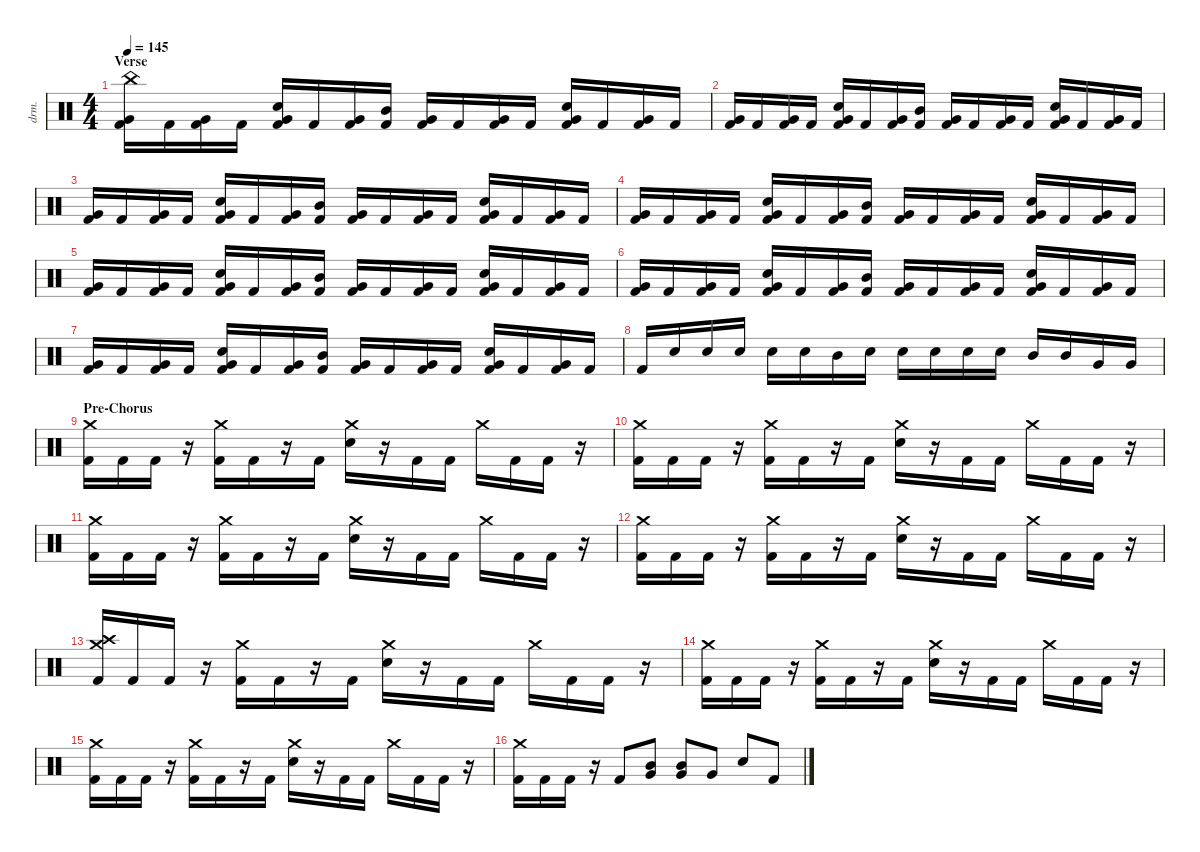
\defaultSystemsLayout 4
\hideDynamics
\bracketExtendMode nobrackets
\track ("Drums - Mario" "drm.") {instrument percussion}
\staff {score}
\articulation defaults
\ts (4 4)
\section ("" "Verse")
\tempo 145
\clef neutral
\ks c
("Kick (hit) 2" "China (hit)" "Very Low Tom (hit)").16{dy ff beam Down} "Kick (hit) 2".16{beam Down} ("Kick (hit) 2" "Very Low Tom (hit)").16{beam Down} "Kick (hit) 2".16{beam Down} ("Kick (hit) 2" "Snare (hit) 2" "Very Low Tom (hit)").16{beam Up} "Kick (hit) 2".16{beam Up} ("Kick (hit) 2" "Very Low Tom (hit)").16{beam Up} ("Kick (hit) 2" "Mid Tom (hit)").16{beam Up} ("Kick (hit) 2" "Very Low Tom (hit)").16{beam Up} "Kick (hit) 2".16{beam Up} ("Kick (hit) 2" "Very Low Tom (hit)").16{beam Up} "Kick (hit) 2".16{beam Up} ("Kick (hit) 2" "Snare (hit) 2" "Very Low Tom (hit)").16{beam Up} "Kick (hit) 2".16{beam Up} ("Kick (hit) 2" "Very Low Tom (hit)").16{beam Up} "Kick (hit) 2".16{beam Up} |
("Kick (hit) 2" "Very Low Tom (hit)").16{beam Up} "Kick (hit) 2".16{beam Up} ("Kick (hit) 2" "Very Low Tom (hit)").16{beam Up} "Kick (hit) 2".16{beam Up} ("Kick (hit) 2" "Snare (hit) 2" "Very Low Tom (hit)").16{beam Up} "Kick (hit) 2".16{beam Up} ("Kick (hit) 2" "Very Low Tom (hit)").16{beam Up} ("Kick (hit) 2" "Mid Tom (hit)").16{beam Up} ("Kick (hit) 2" "Very Low Tom (hit)").16{beam Up} "Kick (hit) 2".16{beam Up} ("Kick (hit) 2" "Very Low Tom (hit)").16{beam Up} "Kick (hit) 2".16{beam Up} ("Kick (hit) 2" "Snare (hit) 2" "Very Low Tom (hit)").16{beam Up} "Kick (hit) 2".16{beam Up} ("Kick (hit) 2" "Very Low Tom (hit)").16{beam Up} "Kick (hit) 2".16{beam Up} |
("Kick (hit) 2" "Very Low Tom (hit)").16{beam Up} "Kick (hit) 2".16{beam Up} ("Kick (hit) 2" "Very Low Tom (hit)").16{beam Up} "Kick (hit) 2".16{beam Up} ("Kick (hit) 2" "Snare (hit) 2" "Very Low Tom (hit)").16{beam Up} "Kick (hit) 2".16{beam Up} ("Kick (hit) 2" "Very Low Tom (hit)").16{beam Up} ("Kick (hit) 2" "Mid Tom (hit)").16{beam Up} ("Kick (hit) 2" "Very Low Tom (hit)").16{beam Up} "Kick (hit) 2".16{beam Up} ("Kick (hit) 2" "Very Low Tom (hit)").16{beam Up} "Kick (hit) 2".16{beam Up} ("Kick (hit) 2" "Snare (hit) 2" "Very Low Tom (hit)").16{beam Up} "Kick (hit) 2".16{beam Up} ("Kick (hit) 2" "Very Low Tom (hit)").16{beam Up} "Kick (hit) 2".16{beam Up} |
("Kick (hit) 2" "Very Low Tom (hit)").16{beam Up} "Kick (hit) 2".16{beam Up} ("Kick (hit) 2" "Very Low Tom (hit)").16{beam Up} "Kick (hit) 2".16{beam Up} ("Kick (hit) 2" "Snare (hit) 2" "Very Low Tom (hit)").16{beam Up} "Kick (hit) 2".16{beam Up} ("Kick (hit) 2" "Very Low Tom (hit)").16{beam Up} ("Kick (hit) 2" "Mid Tom (hit)").16{beam Up} ("Kick (hit) 2" "Very Low Tom (hit)").16{beam Up} "Kick (hit) 2".16{beam Up} ("Kick (hit) 2" "Very Low Tom (hit)").16{beam Up} "Kick (hit) 2".16{beam Up} ("Kick (hit) 2" "Snare (hit) 2" "Very Low Tom (hit)").16{beam Up} "Kick (hit) 2".16{beam Up} ("Kick (hit) 2" "Very Low Tom (hit)").16{beam Up} "Kick (hit) 2".16{beam Up} |
("Kick (hit) 2" "Very Low Tom (hit)").16{beam Up} "Kick (hit) 2".16{beam Up} ("Kick (hit) 2" "Very Low Tom (hit)").16{beam Up} "Kick (hit) 2".16{beam Up} ("Kick (hit) 2" "Snare (hit) 2" "Very Low Tom (hit)").16{beam Up} "Kick (hit) 2".16{beam Up} ("Kick (hit) 2" "Very Low Tom (hit)").16{beam Up} ("Kick (hit) 2" "Mid Tom (hit)").16{beam Up} ("Kick (hit) 2" "Very Low Tom (hit)").16{beam Up} "Kick (hit) 2".16{beam Up} ("Kick (hit) 2" "Very Low Tom (hit)").16{beam Up} "Kick (hit) 2".16{beam Up} ("Kick (hit) 2" "Snare (hit) 2" "Very Low Tom (hit)").16{beam Up} "Kick (hit) 2".16{beam Up} ("Kick (hit) 2" "Very Low Tom (hit)").16{beam Up} "Kick (hit) 2".16{beam Up} |
("Kick (hit) 2" "Very Low Tom (hit)").16{beam Up} "Kick (hit) 2".16{beam Up} ("Kick (hit) 2" "Very Low Tom (hit)").16{beam Up} "Kick (hit) 2".16{beam Up} ("Kick (hit) 2" "Snare (hit) 2" "Very Low Tom (hit)").16{beam Up} "Kick (hit) 2".16{beam Up} ("Kick (hit) 2" "Very Low Tom (hit)").16{beam Up} ("Kick (hit) 2" "Mid Tom (hit)").16{beam Up} ("Kick (hit) 2" "Very Low Tom (hit)").16{beam Up} "Kick (hit) 2".16{beam Up} ("Kick (hit) 2" "Very Low Tom (hit)").16{beam Up} "Kick (hit) 2".16{beam Up} ("Kick (hit) 2" "Snare (hit) 2" "Very Low Tom (hit)").16{beam Up} "Kick (hit) 2".16{beam Up} ("Kick (hit) 2" "Very Low Tom (hit)").16{beam Up} "Kick (hit) 2".16{beam Up} |
("Kick (hit) 2" "Very Low Tom (hit)").16{beam Up} "Kick (hit) 2".16{beam Up} ("Kick (hit) 2" "Very Low Tom (hit)").16{beam Up} "Kick (hit) 2".16{beam Up} ("Kick (hit) 2" "Snare (hit) 2" "Very Low Tom (hit)").16{beam Up} "Kick (hit) 2".16{beam Up} ("Kick (hit) 2" "Very Low Tom (hit)").16{beam Up} ("Kick (hit) 2" "Mid Tom (hit)").16{beam Up} ("Kick (hit) 2" "Very Low Tom (hit)").16{beam Up} "Kick (hit) 2".16{beam Up} ("Kick (hit) 2" "Very Low Tom (hit)").16{beam Up} "Kick (hit) 2".16{beam Up} ("Kick (hit) 2" "Snare (hit) 2" "Very Low Tom (hit)").16{beam Up} "Kick (hit) 2".16{beam Up} ("Kick (hit) 2" "Very Low Tom (hit)").16{beam Up} "Kick (hit) 2".16{beam Up} |
"Kick (hit) 2".16{beam Up} "Snare (hit) 2".16{beam Up} "Snare (hit) 2".16{beam Up} "Snare (hit) 2".16{beam Up} "Snare (hit) 2".16{beam Down} "Snare (hit) 2".16{beam Down} "Mid Tom (hit)".16{beam Down} "Snare (hit) 2".16{beam Down} "Snare (hit) 2".16{beam Down} "Snare (hit) 2".16{beam Down} "Snare (hit) 2".16{beam Down} "Snare (hit) 2".16{beam Down} "Mid Tom (hit)".16{beam Up} "Mid Tom (hit)".16{beam Up} "Very Low Tom (hit)".16{beam Up} "Very Low Tom (hit)".16{beam Up} |
\section ("" "Pre-Chorus")
("Kick (hit) 2" "Crash medium (hit)").16{beam Down} "Kick (hit) 2".16{beam Down} "Kick (hit) 2".16{beam Down} r.16{beam Down} ("Kick (hit) 2" "Crash medium (hit)").16{beam Down} "Kick (hit) 2".16{beam Down} r.16{beam Down} "Kick (hit) 2".16{beam Down} ("Crash medium (hit)" "Snare (hit) 2").16{beam Down} r.16{beam Down} "Kick (hit) 2".16{beam Down} "Kick (hit) 2".16{beam Down} "Crash medium (hit)".16{beam Down} "Kick (hit) 2".16{beam Down} "Kick (hit) 2".16{beam Down} r.16{beam Down} |
("Kick (hit) 2" "Crash medium (hit)").16{beam Down} "Kick (hit) 2".16{beam Down} "Kick (hit) 2".16{beam Down} r.16{beam Down} ("Kick (hit) 2" "Crash medium (hit)").16{beam Down} "Kick (hit) 2".16{beam Down} r.16{beam Down} "Kick (hit) 2".16{beam Down} ("Crash medium (hit)" "Snare (hit) 2").16{beam Down} r.16{beam Down} "Kick (hit) 2".16{beam Down} "Kick (hit) 2".16{beam Down} "Crash medium (hit)".16{beam Down} "Kick (hit) 2".16{beam Down} "Kick (hit) 2".16{beam Down} r.16{beam Down} |
("Kick (hit) 2" "Crash medium (hit)").16{beam Down} "Kick (hit) 2".16{beam Down} "Kick (hit) 2".16{beam Down} r.16{beam Down} ("Kick (hit) 2" "Crash medium (hit)").16{beam Down} "Kick (hit) 2".16{beam Down} r.16{beam Down} "Kick (hit) 2".16{beam Down} ("Crash medium (hit)" "Snare (hit) 2").16{beam Down} r.16{beam Down} "Kick (hit) 2".16{beam Down} "Kick (hit) 2".16{beam Down} "Crash medium (hit)".16{beam Down} "Kick (hit) 2".16{beam Down} "Kick (hit) 2".16{beam Down} r.16{beam Down} |
("Kick (hit) 2" "Crash medium (hit)").16{beam Down} "Kick (hit) 2".16{beam Down} "Kick (hit) 2".16{beam Down} r.16{beam Down} ("Kick (hit) 2" "Crash medium (hit)").16{beam Down} "Kick (hit) 2".16{beam Down} r.16{beam Down} "Kick (hit) 2".16{beam Down} ("Crash medium (hit)" "Snare (hit) 2").16{beam Down} r.16{beam Down} "Kick (hit) 2".16{beam Down} "Kick (hit) 2".16{beam Down} "Crash medium (hit)".16{beam Down} "Kick (hit) 2".16{beam Down} "Kick (hit) 2".16{beam Down} r.16{beam Down} |
("Kick (hit) 2" "Crash medium (hit)" "Crash high (hit)").16{beam Up} "Kick (hit) 2".16{beam Up} "Kick (hit) 2".16{beam Up} r.16{beam Down} ("Kick (hit) 2" "Crash medium (hit)").16{beam Down} "Kick (hit) 2".16{beam Down} r.16{beam Down} "Kick (hit) 2".16{beam Down} ("Crash medium (hit)" "Snare (hit) 2").16{beam Down} r.16{beam Down} "Kick (hit) 2".16{beam Down} "Kick (hit) 2".16{beam Down} "Crash medium (hit)".16{beam Down} "Kick (hit) 2".16{beam Down} "Kick (hit) 2".16{beam Down} r.16{beam Down} |
("Kick (hit) 2" "Crash medium (hit)").16{beam Down} "Kick (hit) 2".16{beam Down} "Kick (hit) 2".16{beam Down} r.16{beam Down} ("Kick (hit) 2" "Crash medium (hit)").16{beam Down} "Kick (hit) 2".16{beam Down} r.16{beam Down} "Kick (hit) 2".16{beam Down} ("Crash medium (hit)" "Snare (hit) 2").16{beam Down} r.16{beam Down} "Kick (hit) 2".16{beam Down} "Kick (hit) 2".16{beam Down} "Crash medium (hit)".16{beam Down} "Kick (hit) 2".16{beam Down} "Kick (hit) 2".16{beam Down} r.16{beam Down} |
("Kick (hit) 2" "Crash medium (hit)").16{beam Down} "Kick (hit) 2".16{beam Down} "Kick (hit) 2".16{beam Down} r.16{beam Down} ("Kick (hit) 2" "Crash medium (hit)").16{beam Down} "Kick (hit) 2".16{beam Down} r.16{beam Down} "Kick (hit) 2".16{beam Down} ("Crash medium (hit)" "Snare (hit) 2").16{beam Down} r.16{beam Down} "Kick (hit) 2".16{beam Down} "Kick (hit) 2".16{beam Down} "Crash medium (hit)".16{beam Down} "Kick (hit) 2".16{beam Down} "Kick (hit) 2".16{beam Down} r.16{beam Down} |
("Kick (hit) 2" "Crash medium (hit)").16{beam Down} "Kick (hit) 2".16{beam Down} "Kick (hit) 2".16{beam Down} r.16{beam Down} "Kick (hit) 2".8{beam Up} ("Very Low Tom (hit)" "Mid Tom (hit)").8{beam Up} ("Very Low Tom (hit)" "Mid Tom (hit)").8{beam Up} "Very Low Tom (hit)".8{beam Up} "Snare (hit) 2".8{beam Up} "Kick (hit) 2".8{beam Up}
